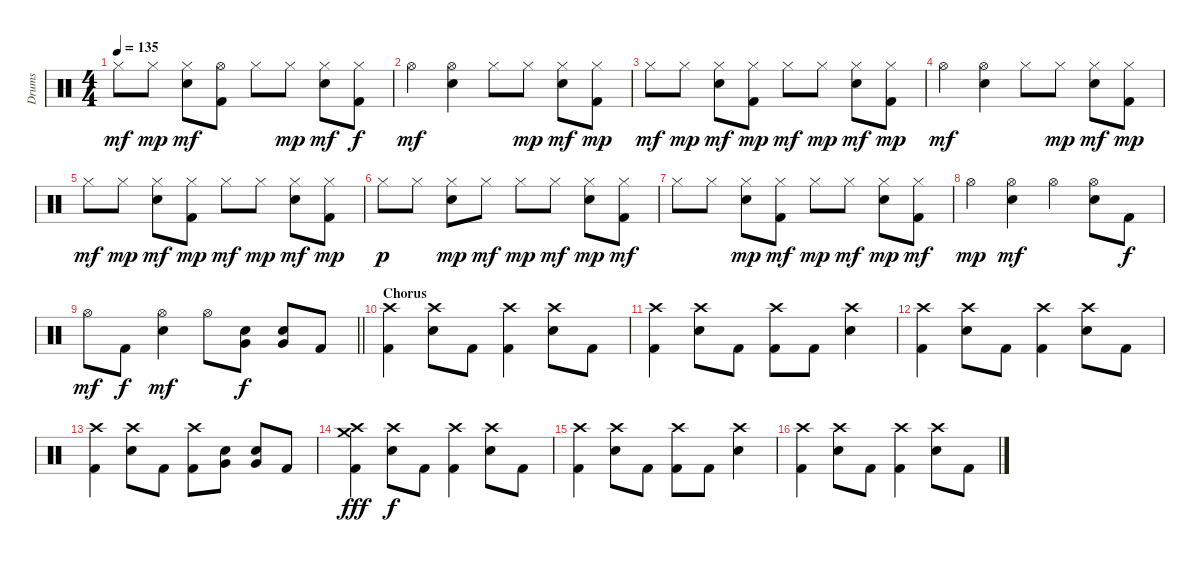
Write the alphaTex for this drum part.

\track ("Drums" "Drums") {instrument percussion}
\staff {score}
\articulation defaults
\ts (4 4)
\tempo 135
\clef neutral
\ks c "Hi-Hat (closed)".8{dy mf} "Hi-Hat (closed)".8{dy mp}
("Hi-Hat (closed)" "Electric Snare (hit)").8{dy mf} ("Hi-Hat (open)" "Kick (hit) 2").8 "Hi-Hat (closed)".8 "Hi-Hat (closed)".8{dy mp} ("Hi-Hat (closed)" "Electric Snare (hit)").8{dy mf} ("Hi-Hat (closed)" "Kick (hit) 2").8{dy f} |
"Hi-Hat (open)".4{dy mf} ("Hi-Hat (open)" "Electric Snare (hit)").4 "Hi-Hat (closed)".8 "Hi-Hat (closed)".8{dy mp} ("Hi-Hat (closed)" "Electric Snare (hit)").8{dy mf} ("Hi-Hat (closed)" "Kick (hit) 2").8{dy mp} |
"Hi-Hat (closed)".8{dy mf} "Hi-Hat (closed)".8{dy mp} ("Hi-Hat (closed)" "Electric Snare (hit)").8{dy mf} ("Hi-Hat (closed)" "Kick (hit) 2").8{dy mp} "Hi-Hat (closed)".8{dy mf} "Hi-Hat (closed)".8{dy mp} ("Hi-Hat (closed)" "Electric Snare (hit)").8{dy mf} ("Hi-Hat (closed)" "Kick (hit) 2").8{dy mp} |
"Hi-Hat (open)".4{dy mf} ("Hi-Hat (open)" "Electric Snare (hit)").4 "Hi-Hat (closed)".8 "Hi-Hat (closed)".8{dy mp} ("Hi-Hat (closed)" "Electric Snare (hit)").8{dy mf} ("Hi-Hat (closed)" "Kick (hit) 2").8{dy mp} |
"Hi-Hat (closed)".8{dy mf} "Hi-Hat (closed)".8{dy mp} ("Hi-Hat (closed)" "Electric Snare (hit)").8{dy mf} ("Hi-Hat (closed)" "Kick (hit) 2").8{dy mp} "Hi-Hat (closed)".8{dy mf} "Hi-Hat (closed)".8{dy mp} ("Hi-Hat (closed)" "Electric Snare (hit)").8{dy mf} ("Hi-Hat (closed)" "Kick (hit) 2").8{dy mp} |
"Hi-Hat (closed)".8{dy p} "Hi-Hat (closed)".8 ("Hi-Hat (closed)" "Electric Snare (hit)").8{dy mp} "Hi-Hat (closed)".8{dy mf} "Hi-Hat (closed)".8{dy mp} "Hi-Hat (closed)".8{dy mf} ("Hi-Hat (closed)" "Electric Snare (hit)").8{dy mp} ("Hi-Hat (closed)" "Kick (hit) 2").8{dy mf} |
"Hi-Hat (closed)".8 "Hi-Hat (closed)".8 ("Hi-Hat (closed)" "Electric Snare (hit)").8{dy mp} ("Hi-Hat (closed)" "Kick (hit) 2").8{dy mf} "Hi-Hat (closed)".8{dy mp} "Hi-Hat (closed)".8{dy mf} ("Hi-Hat (closed)" "Electric Snare (hit)").8{dy mp} ("Hi-Hat (closed)" "Kick (hit) 2").8{dy mf} |
"Hi-Hat (open)".4{dy mp} ("Hi-Hat (open)" "Electric Snare (hit)").4{dy mf} "Hi-Hat (open)".4 ("Hi-Hat (open)" "Electric Snare (hit)").8 "Kick (hit) 2".8{dy f} |
\barLineRight lightlight "Hi-Hat (open)".8{dy mf} "Kick (hit) 2".8{dy f}
("Hi-Hat (open)" "Electric Snare (hit)").4{dy mf} "Hi-Hat (open)".8 ("Very Low Tom (hit)" "Electric Snare (hit)").8{dy f} ("Very Low Tom (hit)" "Electric Snare (hit)").8 "Kick (hit) 2".8 |
\section ("" "Chorus")
("Crash high (hit)" "Kick (hit) 2").4 ("Crash high (hit)" "Electric Snare (hit)").8 "Kick (hit) 2".8 ("Crash high (hit)" "Kick (hit) 2").4 ("Crash high (hit)" "Electric Snare (hit)").8 "Kick (hit) 2".8 |
("Crash high (hit)" "Kick (hit) 2").4 ("Crash high (hit)" "Electric Snare (hit)").8 "Kick (hit) 2".8 ("Crash high (hit)" "Kick (hit) 2").8 "Kick (hit) 2".8 ("Crash high (hit)" "Electric Snare (hit)").4 |
("Crash high (hit)" "Kick (hit) 2").4 ("Crash high (hit)" "Electric Snare (hit)").8 "Kick (hit) 2".8 ("Crash high (hit)" "Kick (hit) 2").4 ("Crash high (hit)" "Electric Snare (hit)").8 "Kick (hit) 2".8 |
("Crash high (hit)" "Kick (hit) 2").4 ("Crash high (hit)" "Electric Snare (hit)").8 "Kick (hit) 2".8 ("Crash high (hit)" "Kick (hit) 2").8 ("Very Low Tom (hit)" "Electric Snare (hit)").8 ("Very Low Tom (hit)" "Electric Snare (hit)").8 "Kick (hit) 2".8 |
("Crash medium (hit)" "Crash high (hit)" "Kick (hit) 2").4{dy fff} ("Crash high (hit)" "Electric Snare (hit)").8{dy f} "Kick (hit) 2".8 ("Crash high (hit)" "Kick (hit) 2").4 ("Crash high (hit)" "Electric Snare (hit)").8 "Kick (hit) 2".8 |
("Crash high (hit)" "Kick (hit) 2").4 ("Crash high (hit)" "Electric Snare (hit)").8 "Kick (hit) 2".8 ("Crash high (hit)" "Kick (hit) 2").8 "Kick (hit) 2".8 ("Crash high (hit)" "Electric Snare (hit)").4 |
("Crash high (hit)" "Kick (hit) 2").4 ("Crash high (hit)" "Electric Snare (hit)").8 "Kick (hit) 2".8 ("Crash high (hit)" "Kick (hit) 2").4 ("Crash high (hit)" "Electric Snare (hit)").8 "Kick (hit) 2".8
